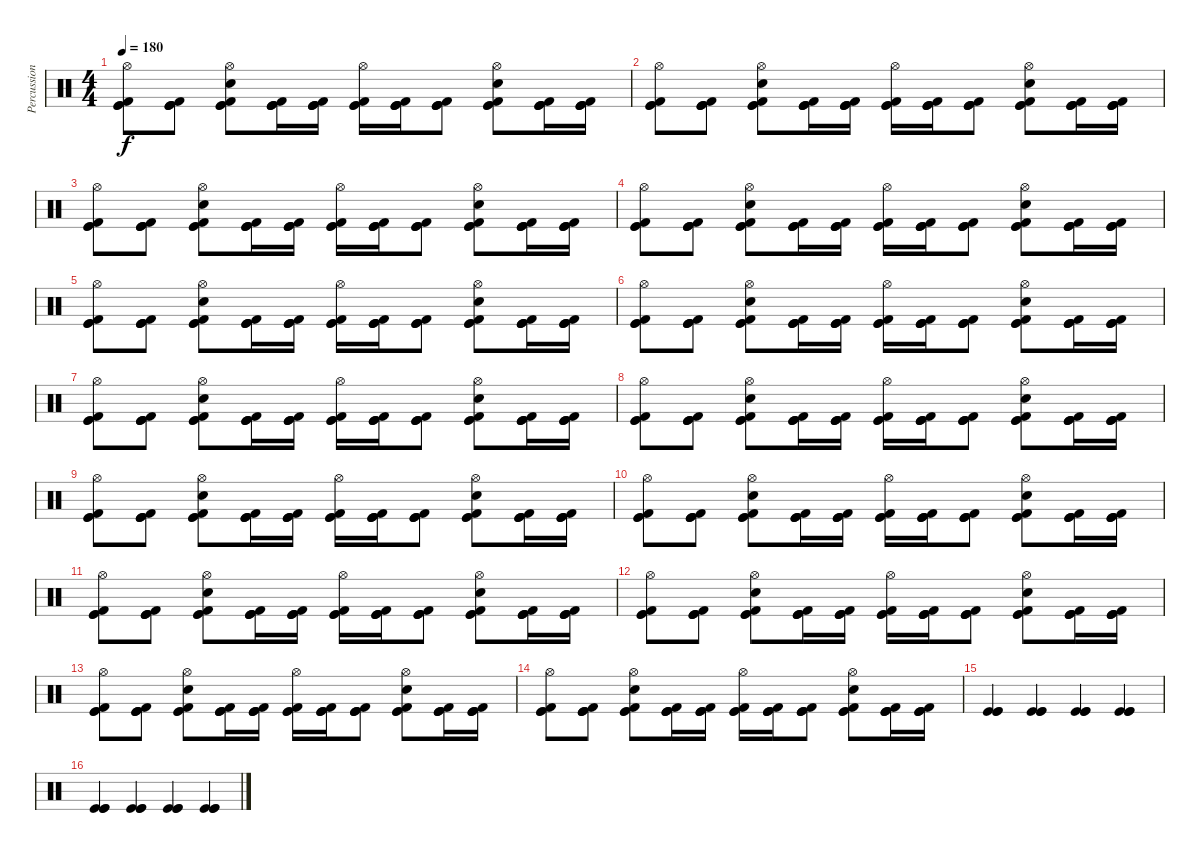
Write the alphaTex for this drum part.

\track ("Percussion" "Percussion") {instrument percussion}
\staff {score}
\articulation defaults
\ts (4 4)
\tempo 180
\clef neutral
\ks c
("Hi-Hat (open)" "Kick (hit)" "Kick (hit)" "Kick (hit) 2").8{dy f} ("Kick (hit)" "Kick (hit)" "Kick (hit)" "Kick (hit) 2").8 ("Hi-Hat (open)" "Kick (hit)" "Kick (hit)" "Kick (hit) 2" "Electric Snare (hit)").8 ("Kick (hit)" "Kick (hit)" "Kick (hit)" "Kick (hit) 2").16 ("Kick (hit)" "Kick (hit)" "Kick (hit)" "Kick (hit) 2").16 ("Hi-Hat (open)" "Kick (hit)" "Kick (hit)" "Kick (hit) 2").16 ("Kick (hit)" "Kick (hit)" "Kick (hit)" "Kick (hit) 2").16 ("Kick (hit)" "Kick (hit)" "Kick (hit)" "Kick (hit) 2").8 ("Hi-Hat (open)" "Kick (hit)" "Kick (hit)" "Kick (hit) 2" "Electric Snare (hit)").8 ("Kick (hit)" "Kick (hit)" "Kick (hit)" "Kick (hit) 2").16 ("Kick (hit)" "Kick (hit)" "Kick (hit)" "Kick (hit) 2").16 |
("Hi-Hat (open)" "Kick (hit)" "Kick (hit)" "Kick (hit) 2").8 ("Kick (hit)" "Kick (hit)" "Kick (hit)" "Kick (hit) 2").8 ("Hi-Hat (open)" "Kick (hit)" "Kick (hit)" "Kick (hit) 2" "Electric Snare (hit)").8 ("Kick (hit)" "Kick (hit)" "Kick (hit)" "Kick (hit) 2").16 ("Kick (hit)" "Kick (hit)" "Kick (hit)" "Kick (hit) 2").16 ("Hi-Hat (open)" "Kick (hit)" "Kick (hit)" "Kick (hit) 2").16 ("Kick (hit)" "Kick (hit)" "Kick (hit)" "Kick (hit) 2").16 ("Kick (hit)" "Kick (hit)" "Kick (hit)" "Kick (hit) 2").8 ("Hi-Hat (open)" "Kick (hit)" "Kick (hit)" "Kick (hit) 2" "Electric Snare (hit)").8 ("Kick (hit)" "Kick (hit)" "Kick (hit)" "Kick (hit) 2").16 ("Kick (hit)" "Kick (hit)" "Kick (hit)" "Kick (hit) 2").16 |
("Hi-Hat (open)" "Kick (hit)" "Kick (hit)" "Kick (hit) 2").8 ("Kick (hit)" "Kick (hit)" "Kick (hit)" "Kick (hit) 2").8 ("Hi-Hat (open)" "Kick (hit)" "Kick (hit)" "Kick (hit) 2" "Electric Snare (hit)").8 ("Kick (hit)" "Kick (hit)" "Kick (hit)" "Kick (hit) 2").16 ("Kick (hit)" "Kick (hit)" "Kick (hit)" "Kick (hit) 2").16 ("Hi-Hat (open)" "Kick (hit)" "Kick (hit)" "Kick (hit) 2").16 ("Kick (hit)" "Kick (hit)" "Kick (hit)" "Kick (hit) 2").16 ("Kick (hit)" "Kick (hit)" "Kick (hit)" "Kick (hit) 2").8 ("Hi-Hat (open)" "Kick (hit)" "Kick (hit)" "Kick (hit) 2" "Electric Snare (hit)").8 ("Kick (hit)" "Kick (hit)" "Kick (hit)" "Kick (hit) 2").16 ("Kick (hit)" "Kick (hit)" "Kick (hit)" "Kick (hit) 2").16 |
("Hi-Hat (open)" "Kick (hit)" "Kick (hit)" "Kick (hit) 2").8 ("Kick (hit)" "Kick (hit)" "Kick (hit)" "Kick (hit) 2").8 ("Hi-Hat (open)" "Kick (hit)" "Kick (hit)" "Kick (hit) 2" "Electric Snare (hit)").8 ("Kick (hit)" "Kick (hit)" "Kick (hit)" "Kick (hit) 2").16 ("Kick (hit)" "Kick (hit)" "Kick (hit)" "Kick (hit) 2").16 ("Hi-Hat (open)" "Kick (hit)" "Kick (hit)" "Kick (hit) 2").16 ("Kick (hit)" "Kick (hit)" "Kick (hit)" "Kick (hit) 2").16 ("Kick (hit)" "Kick (hit)" "Kick (hit)" "Kick (hit) 2").8 ("Hi-Hat (open)" "Kick (hit)" "Kick (hit)" "Kick (hit) 2" "Electric Snare (hit)").8 ("Kick (hit)" "Kick (hit)" "Kick (hit)" "Kick (hit) 2").16 ("Kick (hit)" "Kick (hit)" "Kick (hit)" "Kick (hit) 2").16 |
("Hi-Hat (open)" "Kick (hit)" "Kick (hit)" "Kick (hit) 2").8 ("Kick (hit)" "Kick (hit)" "Kick (hit)" "Kick (hit) 2").8 ("Hi-Hat (open)" "Kick (hit)" "Kick (hit)" "Kick (hit) 2" "Electric Snare (hit)").8 ("Kick (hit)" "Kick (hit)" "Kick (hit)" "Kick (hit) 2").16 ("Kick (hit)" "Kick (hit)" "Kick (hit)" "Kick (hit) 2").16 ("Hi-Hat (open)" "Kick (hit)" "Kick (hit)" "Kick (hit) 2").16 ("Kick (hit)" "Kick (hit)" "Kick (hit)" "Kick (hit) 2").16 ("Kick (hit)" "Kick (hit)" "Kick (hit)" "Kick (hit) 2").8 ("Hi-Hat (open)" "Kick (hit)" "Kick (hit)" "Kick (hit) 2" "Electric Snare (hit)").8 ("Kick (hit)" "Kick (hit)" "Kick (hit)" "Kick (hit) 2").16 ("Kick (hit)" "Kick (hit)" "Kick (hit)" "Kick (hit) 2").16 |
("Hi-Hat (open)" "Kick (hit)" "Kick (hit)" "Kick (hit) 2").8 ("Kick (hit)" "Kick (hit)" "Kick (hit)" "Kick (hit) 2").8 ("Hi-Hat (open)" "Kick (hit)" "Kick (hit)" "Kick (hit) 2" "Electric Snare (hit)").8 ("Kick (hit)" "Kick (hit)" "Kick (hit)" "Kick (hit) 2").16 ("Kick (hit)" "Kick (hit)" "Kick (hit)" "Kick (hit) 2").16 ("Hi-Hat (open)" "Kick (hit)" "Kick (hit)" "Kick (hit) 2").16 ("Kick (hit)" "Kick (hit)" "Kick (hit)" "Kick (hit) 2").16 ("Kick (hit)" "Kick (hit)" "Kick (hit)" "Kick (hit) 2").8 ("Hi-Hat (open)" "Kick (hit)" "Kick (hit)" "Kick (hit) 2" "Electric Snare (hit)").8 ("Kick (hit)" "Kick (hit)" "Kick (hit)" "Kick (hit) 2").16 ("Kick (hit)" "Kick (hit)" "Kick (hit)" "Kick (hit) 2").16 |
("Hi-Hat (open)" "Kick (hit)" "Kick (hit)" "Kick (hit) 2").8 ("Kick (hit)" "Kick (hit)" "Kick (hit)" "Kick (hit) 2").8 ("Hi-Hat (open)" "Kick (hit)" "Kick (hit)" "Kick (hit) 2" "Electric Snare (hit)").8 ("Kick (hit)" "Kick (hit)" "Kick (hit)" "Kick (hit) 2").16 ("Kick (hit)" "Kick (hit)" "Kick (hit)" "Kick (hit) 2").16 ("Hi-Hat (open)" "Kick (hit)" "Kick (hit)" "Kick (hit) 2").16 ("Kick (hit)" "Kick (hit)" "Kick (hit)" "Kick (hit) 2").16 ("Kick (hit)" "Kick (hit)" "Kick (hit)" "Kick (hit) 2").8 ("Hi-Hat (open)" "Kick (hit)" "Kick (hit)" "Kick (hit) 2" "Electric Snare (hit)").8 ("Kick (hit)" "Kick (hit)" "Kick (hit)" "Kick (hit) 2").16 ("Kick (hit)" "Kick (hit)" "Kick (hit)" "Kick (hit) 2").16 |
("Hi-Hat (open)" "Kick (hit)" "Kick (hit)" "Kick (hit) 2").8 ("Kick (hit)" "Kick (hit)" "Kick (hit)" "Kick (hit) 2").8 ("Hi-Hat (open)" "Kick (hit)" "Kick (hit)" "Kick (hit) 2" "Electric Snare (hit)").8 ("Kick (hit)" "Kick (hit)" "Kick (hit)" "Kick (hit) 2").16 ("Kick (hit)" "Kick (hit)" "Kick (hit)" "Kick (hit) 2").16 ("Hi-Hat (open)" "Kick (hit)" "Kick (hit)" "Kick (hit) 2").16 ("Kick (hit)" "Kick (hit)" "Kick (hit)" "Kick (hit) 2").16 ("Kick (hit)" "Kick (hit)" "Kick (hit)" "Kick (hit) 2").8 ("Hi-Hat (open)" "Kick (hit)" "Kick (hit)" "Kick (hit) 2" "Electric Snare (hit)").8 ("Kick (hit)" "Kick (hit)" "Kick (hit)" "Kick (hit) 2").16 ("Kick (hit)" "Kick (hit)" "Kick (hit)" "Kick (hit) 2").16 |
("Hi-Hat (open)" "Kick (hit)" "Kick (hit)" "Kick (hit) 2").8 ("Kick (hit)" "Kick (hit)" "Kick (hit)" "Kick (hit) 2").8 ("Hi-Hat (open)" "Kick (hit)" "Kick (hit)" "Kick (hit) 2" "Electric Snare (hit)").8 ("Kick (hit)" "Kick (hit)" "Kick (hit)" "Kick (hit) 2").16 ("Kick (hit)" "Kick (hit)" "Kick (hit)" "Kick (hit) 2").16 ("Hi-Hat (open)" "Kick (hit)" "Kick (hit)" "Kick (hit) 2").16 ("Kick (hit)" "Kick (hit)" "Kick (hit)" "Kick (hit) 2").16 ("Kick (hit)" "Kick (hit)" "Kick (hit)" "Kick (hit) 2").8 ("Hi-Hat (open)" "Kick (hit)" "Kick (hit)" "Kick (hit) 2" "Electric Snare (hit)").8 ("Kick (hit)" "Kick (hit)" "Kick (hit)" "Kick (hit) 2").16 ("Kick (hit)" "Kick (hit)" "Kick (hit)" "Kick (hit) 2").16 |
("Hi-Hat (open)" "Kick (hit)" "Kick (hit)" "Kick (hit) 2").8 ("Kick (hit)" "Kick (hit)" "Kick (hit)" "Kick (hit) 2").8 ("Hi-Hat (open)" "Kick (hit)" "Kick (hit)" "Kick (hit) 2" "Electric Snare (hit)").8 ("Kick (hit)" "Kick (hit)" "Kick (hit)" "Kick (hit) 2").16 ("Kick (hit)" "Kick (hit)" "Kick (hit)" "Kick (hit) 2").16 ("Hi-Hat (open)" "Kick (hit)" "Kick (hit)" "Kick (hit) 2").16 ("Kick (hit)" "Kick (hit)" "Kick (hit)" "Kick (hit) 2").16 ("Kick (hit)" "Kick (hit)" "Kick (hit)" "Kick (hit) 2").8 ("Hi-Hat (open)" "Kick (hit)" "Kick (hit)" "Kick (hit) 2" "Electric Snare (hit)").8 ("Kick (hit)" "Kick (hit)" "Kick (hit)" "Kick (hit) 2").16 ("Kick (hit)" "Kick (hit)" "Kick (hit)" "Kick (hit) 2").16 |
("Hi-Hat (open)" "Kick (hit)" "Kick (hit)" "Kick (hit) 2").8 ("Kick (hit)" "Kick (hit)" "Kick (hit)" "Kick (hit) 2").8 ("Hi-Hat (open)" "Kick (hit)" "Kick (hit)" "Kick (hit) 2" "Electric Snare (hit)").8 ("Kick (hit)" "Kick (hit)" "Kick (hit)" "Kick (hit) 2").16 ("Kick (hit)" "Kick (hit)" "Kick (hit)" "Kick (hit) 2").16 ("Hi-Hat (open)" "Kick (hit)" "Kick (hit)" "Kick (hit) 2").16 ("Kick (hit)" "Kick (hit)" "Kick (hit)" "Kick (hit) 2").16 ("Kick (hit)" "Kick (hit)" "Kick (hit)" "Kick (hit) 2").8 ("Hi-Hat (open)" "Kick (hit)" "Kick (hit)" "Kick (hit) 2" "Electric Snare (hit)").8 ("Kick (hit)" "Kick (hit)" "Kick (hit)" "Kick (hit) 2").16 ("Kick (hit)" "Kick (hit)" "Kick (hit)" "Kick (hit) 2").16 |
("Hi-Hat (open)" "Kick (hit)" "Kick (hit)" "Kick (hit) 2").8 ("Kick (hit)" "Kick (hit)" "Kick (hit)" "Kick (hit) 2").8 ("Hi-Hat (open)" "Kick (hit)" "Kick (hit)" "Kick (hit) 2" "Electric Snare (hit)").8 ("Kick (hit)" "Kick (hit)" "Kick (hit)" "Kick (hit) 2").16 ("Kick (hit)" "Kick (hit)" "Kick (hit)" "Kick (hit) 2").16 ("Hi-Hat (open)" "Kick (hit)" "Kick (hit)" "Kick (hit) 2").16 ("Kick (hit)" "Kick (hit)" "Kick (hit)" "Kick (hit) 2").16 ("Kick (hit)" "Kick (hit)" "Kick (hit)" "Kick (hit) 2").8 ("Hi-Hat (open)" "Kick (hit)" "Kick (hit)" "Kick (hit) 2" "Electric Snare (hit)").8 ("Kick (hit)" "Kick (hit)" "Kick (hit)" "Kick (hit) 2").16 ("Kick (hit)" "Kick (hit)" "Kick (hit)" "Kick (hit) 2").16 |
("Hi-Hat (open)" "Kick (hit)" "Kick (hit)" "Kick (hit) 2").8 ("Kick (hit)" "Kick (hit)" "Kick (hit)" "Kick (hit) 2").8 ("Hi-Hat (open)" "Kick (hit)" "Kick (hit)" "Kick (hit) 2" "Electric Snare (hit)").8 ("Kick (hit)" "Kick (hit)" "Kick (hit)" "Kick (hit) 2").16 ("Kick (hit)" "Kick (hit)" "Kick (hit)" "Kick (hit) 2").16 ("Hi-Hat (open)" "Kick (hit)" "Kick (hit)" "Kick (hit) 2").16 ("Kick (hit)" "Kick (hit)" "Kick (hit)" "Kick (hit) 2").16 ("Kick (hit)" "Kick (hit)" "Kick (hit)" "Kick (hit) 2").8 ("Hi-Hat (open)" "Kick (hit)" "Kick (hit)" "Kick (hit) 2" "Electric Snare (hit)").8 ("Kick (hit)" "Kick (hit)" "Kick (hit)" "Kick (hit) 2").16 ("Kick (hit)" "Kick (hit)" "Kick (hit)" "Kick (hit) 2").16 |
("Hi-Hat (open)" "Kick (hit)" "Kick (hit)" "Kick (hit) 2").8 ("Kick (hit)" "Kick (hit)" "Kick (hit)" "Kick (hit) 2").8 ("Hi-Hat (open)" "Kick (hit)" "Kick (hit)" "Kick (hit) 2" "Electric Snare (hit)").8 ("Kick (hit)" "Kick (hit)" "Kick (hit)" "Kick (hit) 2").16 ("Kick (hit)" "Kick (hit)" "Kick (hit)" "Kick (hit) 2").16 ("Hi-Hat (open)" "Kick (hit)" "Kick (hit)" "Kick (hit) 2").16 ("Kick (hit)" "Kick (hit)" "Kick (hit)" "Kick (hit) 2").16 ("Kick (hit)" "Kick (hit)" "Kick (hit)" "Kick (hit) 2").8 ("Hi-Hat (open)" "Kick (hit)" "Kick (hit)" "Kick (hit) 2" "Electric Snare (hit)").8 ("Kick (hit)" "Kick (hit)" "Kick (hit)" "Kick (hit) 2").16 ("Kick (hit)" "Kick (hit)" "Kick (hit)" "Kick (hit) 2").16 |
("Kick (hit)" "Kick (hit)" "Kick (hit)").4 ("Kick (hit)" "Kick (hit)" "Kick (hit)").4 ("Kick (hit)" "Kick (hit)" "Kick (hit)").4 ("Kick (hit)" "Kick (hit)" "Kick (hit)").4 |
("Kick (hit)" "Kick (hit)" "Kick (hit)").4 ("Kick (hit)" "Kick (hit)" "Kick (hit)").4 ("Kick (hit)" "Kick (hit)" "Kick (hit)").4 ("Kick (hit)" "Kick (hit)" "Kick (hit)").4
